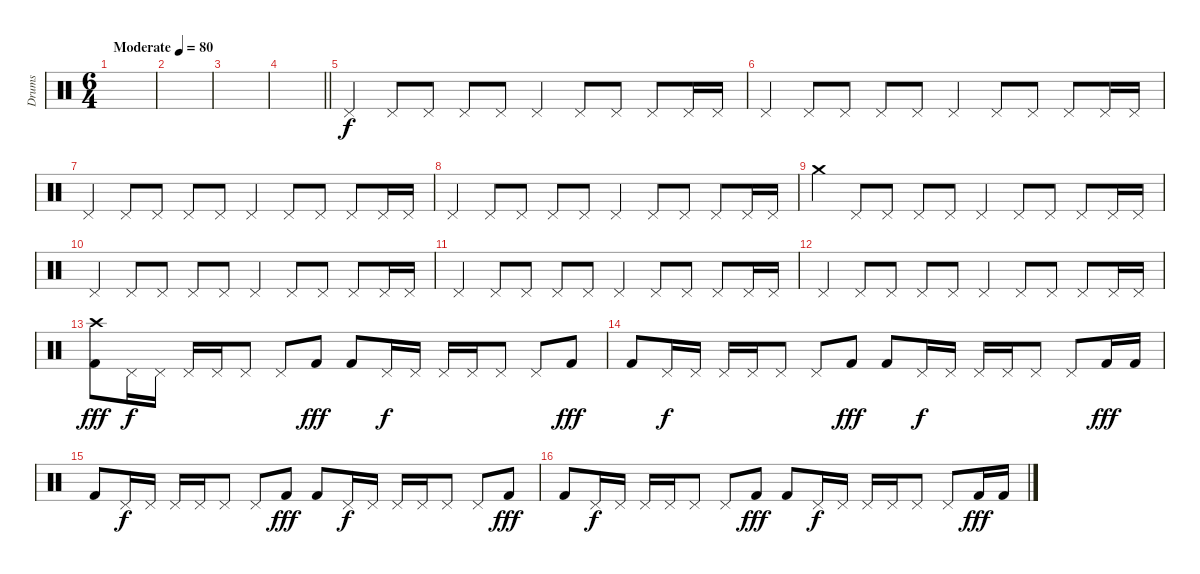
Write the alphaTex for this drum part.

\track ("Drums" "Drums") {instrument percussion}
\staff {score}
\articulation defaults
\ts (6 4)
\tempo (80 "Moderate")
\clef neutral
\ks c
|
|
|
\barLineRight lightlight
|
\section ("" "")
"Pedal Hi-Hat (hit)".4 "Pedal Hi-Hat (hit)".8 "Pedal Hi-Hat (hit)".8 "Pedal Hi-Hat (hit)".8 "Pedal Hi-Hat (hit)".8 "Pedal Hi-Hat (hit)".4 "Pedal Hi-Hat (hit)".8 "Pedal Hi-Hat (hit)".8 "Pedal Hi-Hat (hit)".8 "Pedal Hi-Hat (hit)".16 "Pedal Hi-Hat (hit)".16 |
"Pedal Hi-Hat (hit)".4 "Pedal Hi-Hat (hit)".8 "Pedal Hi-Hat (hit)".8 "Pedal Hi-Hat (hit)".8 "Pedal Hi-Hat (hit)".8 "Pedal Hi-Hat (hit)".4 "Pedal Hi-Hat (hit)".8 "Pedal Hi-Hat (hit)".8 "Pedal Hi-Hat (hit)".8 "Pedal Hi-Hat (hit)".16 "Pedal Hi-Hat (hit)".16 |
"Pedal Hi-Hat (hit)".4 "Pedal Hi-Hat (hit)".8 "Pedal Hi-Hat (hit)".8 "Pedal Hi-Hat (hit)".8 "Pedal Hi-Hat (hit)".8 "Pedal Hi-Hat (hit)".4 "Pedal Hi-Hat (hit)".8 "Pedal Hi-Hat (hit)".8 "Pedal Hi-Hat (hit)".8 "Pedal Hi-Hat (hit)".16 "Pedal Hi-Hat (hit)".16 |
"Pedal Hi-Hat (hit)".4 "Pedal Hi-Hat (hit)".8 "Pedal Hi-Hat (hit)".8 "Pedal Hi-Hat (hit)".8 "Pedal Hi-Hat (hit)".8 "Pedal Hi-Hat (hit)".4 "Pedal Hi-Hat (hit)".8 "Pedal Hi-Hat (hit)".8 "Pedal Hi-Hat (hit)".8 "Pedal Hi-Hat (hit)".16 "Pedal Hi-Hat (hit)".16 |
"Crash medium (hit)".4 "Pedal Hi-Hat (hit)".8 "Pedal Hi-Hat (hit)".8 "Pedal Hi-Hat (hit)".8 "Pedal Hi-Hat (hit)".8 "Pedal Hi-Hat (hit)".4 "Pedal Hi-Hat (hit)".8 "Pedal Hi-Hat (hit)".8 "Pedal Hi-Hat (hit)".8 "Pedal Hi-Hat (hit)".16 "Pedal Hi-Hat (hit)".16 |
"Pedal Hi-Hat (hit)".4 "Pedal Hi-Hat (hit)".8 "Pedal Hi-Hat (hit)".8 "Pedal Hi-Hat (hit)".8 "Pedal Hi-Hat (hit)".8 "Pedal Hi-Hat (hit)".4 "Pedal Hi-Hat (hit)".8 "Pedal Hi-Hat (hit)".8 "Pedal Hi-Hat (hit)".8 "Pedal Hi-Hat (hit)".16 "Pedal Hi-Hat (hit)".16 |
"Pedal Hi-Hat (hit)".4 "Pedal Hi-Hat (hit)".8 "Pedal Hi-Hat (hit)".8 "Pedal Hi-Hat (hit)".8 "Pedal Hi-Hat (hit)".8 "Pedal Hi-Hat (hit)".4 "Pedal Hi-Hat (hit)".8 "Pedal Hi-Hat (hit)".8 "Pedal Hi-Hat (hit)".8 "Pedal Hi-Hat (hit)".16 "Pedal Hi-Hat (hit)".16 |
"Pedal Hi-Hat (hit)".4 "Pedal Hi-Hat (hit)".8 "Pedal Hi-Hat (hit)".8 "Pedal Hi-Hat (hit)".8 "Pedal Hi-Hat (hit)".8 "Pedal Hi-Hat (hit)".4 "Pedal Hi-Hat (hit)".8 "Pedal Hi-Hat (hit)".8 "Pedal Hi-Hat (hit)".8 "Pedal Hi-Hat (hit)".16 "Pedal Hi-Hat (hit)".16 |
("Crash high (hit)" "Kick (hit) 2").8{dy fff} "Pedal Hi-Hat (hit)".16{dy f} "Pedal Hi-Hat (hit)".16 "Pedal Hi-Hat (hit)".16 "Pedal Hi-Hat (hit)".16 "Pedal Hi-Hat (hit)".8 "Pedal Hi-Hat (hit)".8 "Kick (hit) 2".8{dy fff} "Kick (hit) 2".8 "Pedal Hi-Hat (hit)".16{dy f} "Pedal Hi-Hat (hit)".16 "Pedal Hi-Hat (hit)".16 "Pedal Hi-Hat (hit)".16 "Pedal Hi-Hat (hit)".8 "Pedal Hi-Hat (hit)".8 "Kick (hit) 2".8{dy fff} |
"Kick (hit) 2".8 "Pedal Hi-Hat (hit)".16{dy f} "Pedal Hi-Hat (hit)".16 "Pedal Hi-Hat (hit)".16 "Pedal Hi-Hat (hit)".16 "Pedal Hi-Hat (hit)".8 "Pedal Hi-Hat (hit)".8 "Kick (hit) 2".8{dy fff} "Kick (hit) 2".8 "Pedal Hi-Hat (hit)".16{dy f} "Pedal Hi-Hat (hit)".16 "Pedal Hi-Hat (hit)".16 "Pedal Hi-Hat (hit)".16 "Pedal Hi-Hat (hit)".8 "Pedal Hi-Hat (hit)".8 "Kick (hit) 2".16{dy fff} "Kick (hit) 2".16 |
"Kick (hit) 2".8 "Pedal Hi-Hat (hit)".16{dy f} "Pedal Hi-Hat (hit)".16 "Pedal Hi-Hat (hit)".16 "Pedal Hi-Hat (hit)".16 "Pedal Hi-Hat (hit)".8 "Pedal Hi-Hat (hit)".8 "Kick (hit) 2".8{dy fff} "Kick (hit) 2".8 "Pedal Hi-Hat (hit)".16{dy f} "Pedal Hi-Hat (hit)".16 "Pedal Hi-Hat (hit)".16 "Pedal Hi-Hat (hit)".16 "Pedal Hi-Hat (hit)".8 "Pedal Hi-Hat (hit)".8 "Kick (hit) 2".8{dy fff} |
"Kick (hit) 2".8 "Pedal Hi-Hat (hit)".16{dy f} "Pedal Hi-Hat (hit)".16 "Pedal Hi-Hat (hit)".16 "Pedal Hi-Hat (hit)".16 "Pedal Hi-Hat (hit)".8 "Pedal Hi-Hat (hit)".8 "Kick (hit) 2".8{dy fff} "Kick (hit) 2".8 "Pedal Hi-Hat (hit)".16{dy f} "Pedal Hi-Hat (hit)".16 "Pedal Hi-Hat (hit)".16 "Pedal Hi-Hat (hit)".16 "Pedal Hi-Hat (hit)".8 "Pedal Hi-Hat (hit)".8 "Kick (hit) 2".16{dy fff} "Kick (hit) 2".16
